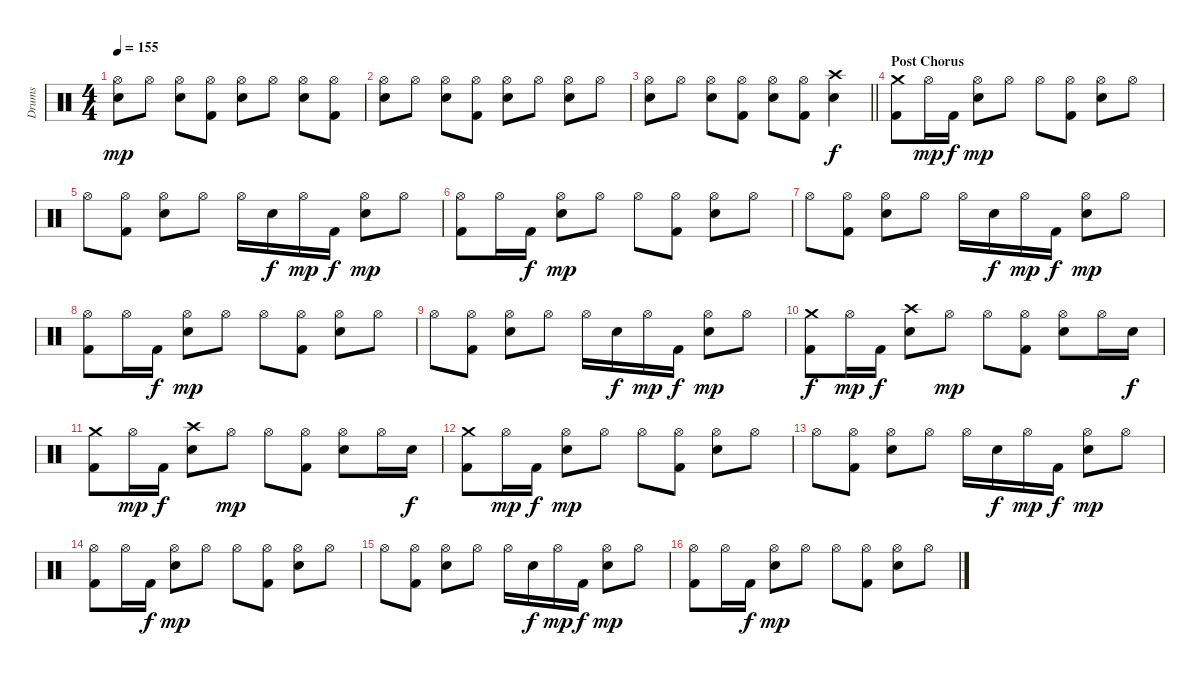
\track ("Drums" "Drums") {instrument percussion}
\staff {score}
\articulation defaults
\ts (4 4)
\tempo 155
\clef neutral
\ks c
("Hi-Hat (open)" "Snare (hit) 2").8{dy mp} "Hi-Hat (open)".8 ("Hi-Hat (open)" "Snare (hit) 2").8 ("Hi-Hat (open)" "Kick (hit) 2").8 ("Hi-Hat (open)" "Snare (hit) 2").8 "Hi-Hat (open)".8 ("Hi-Hat (open)" "Snare (hit) 2").8 ("Hi-Hat (open)" "Kick (hit) 2").8 |
("Hi-Hat (open)" "Snare (hit) 2").8 "Hi-Hat (open)".8 ("Hi-Hat (open)" "Snare (hit) 2").8 ("Hi-Hat (open)" "Kick (hit) 2").8 ("Hi-Hat (open)" "Snare (hit) 2").8 "Hi-Hat (open)".8 ("Hi-Hat (open)" "Snare (hit) 2").8 "Hi-Hat (open)".8 |
\barLineRight lightlight
("Hi-Hat (open)" "Snare (hit) 2").8 "Hi-Hat (open)".8 ("Hi-Hat (open)" "Snare (hit) 2").8 ("Hi-Hat (open)" "Kick (hit) 2").8 ("Hi-Hat (open)" "Snare (hit) 2").8 ("Hi-Hat (open)" "Kick (hit) 2").8 ("Crash high (hit)" "Snare (hit) 2").4{dy f} |
\section ("" "Post Chorus")
("Crash medium (hit)" "Kick (hit) 2").8 "Hi-Hat (open)".16{dy mp} "Kick (hit) 2".16{dy f} ("Hi-Hat (open)" "Snare (hit) 2").8{dy mp} "Hi-Hat (open)".8 "Hi-Hat (open)".8 ("Hi-Hat (open)" "Kick (hit) 2").8 ("Hi-Hat (open)" "Snare (hit) 2").8 "Hi-Hat (open)".8 |
"Hi-Hat (open)".8 ("Hi-Hat (open)" "Kick (hit) 2").8 ("Hi-Hat (open)" "Snare (hit) 2").8 "Hi-Hat (open)".8 "Hi-Hat (open)".16 "Snare (hit) 2".16{dy f} "Hi-Hat (open)".16{dy mp} "Kick (hit) 2".16{dy f} ("Hi-Hat (open)" "Snare (hit) 2").8{dy mp} "Hi-Hat (open)".8 |
("Hi-Hat (open)" "Kick (hit) 2").8 "Hi-Hat (open)".16 "Kick (hit) 2".16{dy f} ("Hi-Hat (open)" "Snare (hit) 2").8{dy mp} "Hi-Hat (open)".8 "Hi-Hat (open)".8 ("Hi-Hat (open)" "Kick (hit) 2").8 ("Hi-Hat (open)" "Snare (hit) 2").8 "Hi-Hat (open)".8 |
"Hi-Hat (open)".8 ("Hi-Hat (open)" "Kick (hit) 2").8 ("Hi-Hat (open)" "Snare (hit) 2").8 "Hi-Hat (open)".8 "Hi-Hat (open)".16 "Snare (hit) 2".16{dy f} "Hi-Hat (open)".16{dy mp} "Kick (hit) 2".16{dy f} ("Hi-Hat (open)" "Snare (hit) 2").8{dy mp} "Hi-Hat (open)".8 |
("Hi-Hat (open)" "Kick (hit) 2").8 "Hi-Hat (open)".16 "Kick (hit) 2".16{dy f} ("Hi-Hat (open)" "Snare (hit) 2").8{dy mp} "Hi-Hat (open)".8 "Hi-Hat (open)".8 ("Hi-Hat (open)" "Kick (hit) 2").8 ("Hi-Hat (open)" "Snare (hit) 2").8 "Hi-Hat (open)".8 |
"Hi-Hat (open)".8 ("Hi-Hat (open)" "Kick (hit) 2").8 ("Hi-Hat (open)" "Snare (hit) 2").8 "Hi-Hat (open)".8 "Hi-Hat (open)".16 "Snare (hit) 2".16{dy f} "Hi-Hat (open)".16{dy mp} "Kick (hit) 2".16{dy f} ("Hi-Hat (open)" "Snare (hit) 2").8{dy mp} "Hi-Hat (open)".8 |
("Crash medium (hit)" "Kick (hit) 2").8{dy f} "Hi-Hat (open)".16{dy mp} "Kick (hit) 2".16{dy f} ("Crash high (hit)" "Snare (hit) 2").8 "Hi-Hat (open)".8{dy mp} "Hi-Hat (open)".8 ("Hi-Hat (open)" "Kick (hit) 2").8 ("Hi-Hat (open)" "Snare (hit) 2").8 "Hi-Hat (open)".16 "Snare (hit) 2".16{dy f} |
("Crash medium (hit)" "Kick (hit) 2").8 "Hi-Hat (open)".16{dy mp} "Kick (hit) 2".16{dy f} ("Crash high (hit)" "Snare (hit) 2").8 "Hi-Hat (open)".8{dy mp} "Hi-Hat (open)".8 ("Hi-Hat (open)" "Kick (hit) 2").8 ("Hi-Hat (open)" "Snare (hit) 2").8 "Hi-Hat (open)".16 "Snare (hit) 2".16{dy f} |
("Crash medium (hit)" "Kick (hit) 2").8 "Hi-Hat (open)".16{dy mp} "Kick (hit) 2".16{dy f} ("Hi-Hat (open)" "Snare (hit) 2").8{dy mp} "Hi-Hat (open)".8 "Hi-Hat (open)".8 ("Hi-Hat (open)" "Kick (hit) 2").8 ("Hi-Hat (open)" "Snare (hit) 2").8 "Hi-Hat (open)".8 |
"Hi-Hat (open)".8 ("Hi-Hat (open)" "Kick (hit) 2").8 ("Hi-Hat (open)" "Snare (hit) 2").8 "Hi-Hat (open)".8 "Hi-Hat (open)".16 "Snare (hit) 2".16{dy f} "Hi-Hat (open)".16{dy mp} "Kick (hit) 2".16{dy f} ("Hi-Hat (open)" "Snare (hit) 2").8{dy mp} "Hi-Hat (open)".8 |
("Hi-Hat (open)" "Kick (hit) 2").8 "Hi-Hat (open)".16 "Kick (hit) 2".16{dy f} ("Hi-Hat (open)" "Snare (hit) 2").8{dy mp} "Hi-Hat (open)".8 "Hi-Hat (open)".8 ("Hi-Hat (open)" "Kick (hit) 2").8 ("Hi-Hat (open)" "Snare (hit) 2").8 "Hi-Hat (open)".8 |
"Hi-Hat (open)".8 ("Hi-Hat (open)" "Kick (hit) 2").8 ("Hi-Hat (open)" "Snare (hit) 2").8 "Hi-Hat (open)".8 "Hi-Hat (open)".16 "Snare (hit) 2".16{dy f} "Hi-Hat (open)".16{dy mp} "Kick (hit) 2".16{dy f} ("Hi-Hat (open)" "Snare (hit) 2").8{dy mp} "Hi-Hat (open)".8 |
("Hi-Hat (open)" "Kick (hit) 2").8 "Hi-Hat (open)".16 "Kick (hit) 2".16{dy f} ("Hi-Hat (open)" "Snare (hit) 2").8{dy mp} "Hi-Hat (open)".8 "Hi-Hat (open)".8 ("Hi-Hat (open)" "Kick (hit) 2").8 ("Hi-Hat (open)" "Snare (hit) 2").8 "Hi-Hat (open)".8
